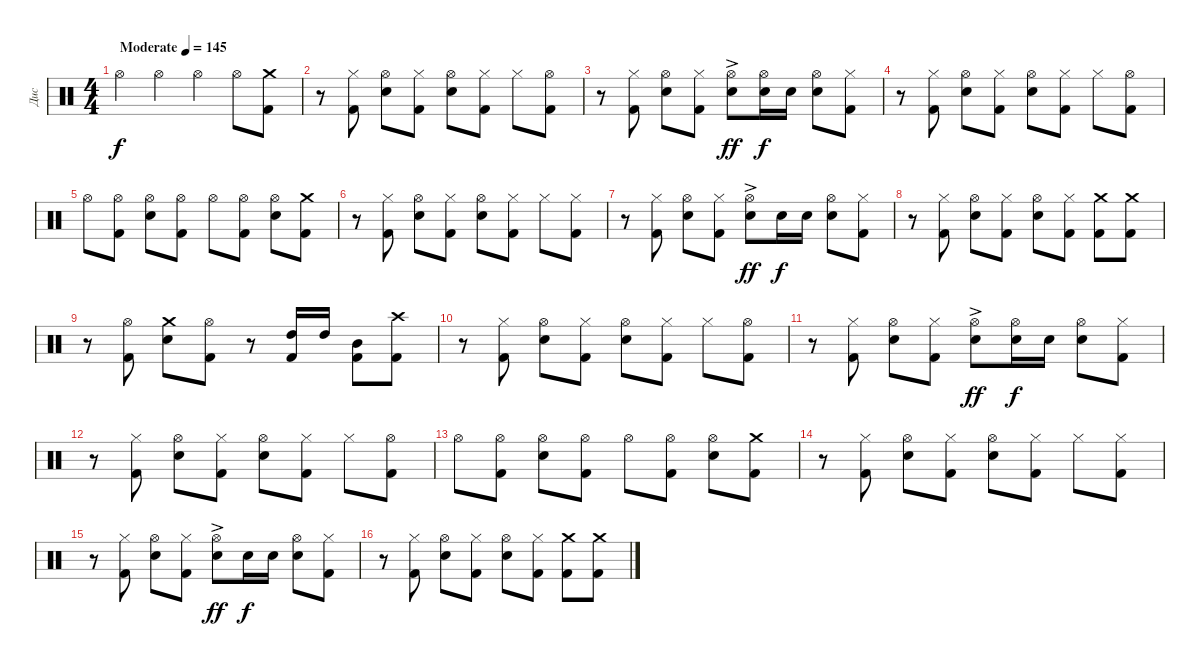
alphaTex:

\track ("Дис" "Дис") {instrument percussion}
\staff {score}
\articulation defaults
\ts (4 4)
\tempo (145 "Moderate")
\clef neutral
\ks c "Hi-Hat (open)".4{dy f} "Hi-Hat (open)".4 "Hi-Hat (open)".4 "Hi-Hat (open)".8
("Crash medium (hit)" "Kick (hit) 2").8 |
r.8 ("Hi-Hat (closed)" "Kick (hit) 2").8 ("Hi-Hat (open)" "Electric Snare (hit)").8 ("Hi-Hat (closed)" "Kick (hit) 2").8 ("Hi-Hat (open)" "Electric Snare (hit)").8 ("Hi-Hat (closed)" "Kick (hit) 2").8 "Hi-Hat (closed)".8 ("Hi-Hat (open)" "Kick (hit) 2").8 |
r.8 ("Hi-Hat (closed)" "Kick (hit) 2").8 ("Hi-Hat (open)" "Electric Snare (hit)").8 ("Hi-Hat (closed)" "Kick (hit) 2").8 ("Hi-Hat (open)" "Electric Snare (hit)"{ac}).8{dy ff} ("Hi-Hat (open)" "Electric Snare (hit)").16{dy f} "Electric Snare (hit)".16 ("Hi-Hat (open)" "Electric Snare (hit)").8 ("Hi-Hat (closed)" "Kick (hit) 2").8 |
r.8 ("Hi-Hat (closed)" "Kick (hit) 2").8 ("Hi-Hat (open)" "Electric Snare (hit)").8 ("Hi-Hat (closed)" "Kick (hit) 2").8 ("Hi-Hat (open)" "Electric Snare (hit)").8 ("Hi-Hat (closed)" "Kick (hit) 2").8 "Hi-Hat (closed)".8 ("Hi-Hat (open)" "Kick (hit) 2").8 |
"Hi-Hat (open)".8 ("Hi-Hat (open)" "Kick (hit) 2").8 ("Hi-Hat (open)" "Electric Snare (hit)").8 ("Hi-Hat (open)" "Kick (hit) 2").8 "Hi-Hat (open)".8 ("Hi-Hat (open)" "Kick (hit) 2").8 ("Hi-Hat (open)" "Electric Snare (hit)").8 ("Crash medium (hit)" "Kick (hit) 2").8 |
r.8 ("Hi-Hat (closed)" "Kick (hit) 2").8 ("Hi-Hat (open)" "Electric Snare (hit)").8 ("Hi-Hat (closed)" "Kick (hit) 2").8 ("Hi-Hat (open)" "Electric Snare (hit)").8 ("Hi-Hat (closed)" "Kick (hit) 2").8 "Hi-Hat (closed)".8 ("Hi-Hat (closed)" "Kick (hit) 2").8 |
r.8 ("Hi-Hat (closed)" "Kick (hit) 2").8 ("Hi-Hat (open)" "Electric Snare (hit)").8 ("Hi-Hat (closed)" "Kick (hit) 2").8 ("Hi-Hat (open)" "Electric Snare (hit)"{ac}).8{dy ff} "Electric Snare (hit)".16{dy f} "Electric Snare (hit)".16 ("Hi-Hat (open)" "Electric Snare (hit)").8 ("Hi-Hat (closed)" "Kick (hit) 2").8 |
r.8 ("Hi-Hat (closed)" "Kick (hit) 2").8 ("Hi-Hat (open)" "Electric Snare (hit)").8 ("Hi-Hat (closed)" "Kick (hit) 2").8 ("Hi-Hat (open)" "Electric Snare (hit)").8 ("Hi-Hat (closed)" "Kick (hit) 2").8 ("Crash medium (hit)" "Kick (hit) 2").8 ("Crash medium (hit)" "Kick (hit) 2").8 |
r.8 ("Hi-Hat (open)" "Kick (hit) 2").8 ("Crash medium (hit)" "Electric Snare (hit)").8 ("Hi-Hat (open)" "Kick (hit) 2").8 r.8 ("High Tom (hit)" "Kick (hit) 2").16 "High Tom (hit)".16 ("Mid Tom (hit)" "Kick (hit) 2").8 ("Crash high (hit)" "Kick (hit) 2").8 |
r.8 ("Hi-Hat (closed)" "Kick (hit) 2").8 ("Hi-Hat (open)" "Electric Snare (hit)").8 ("Hi-Hat (closed)" "Kick (hit) 2").8 ("Hi-Hat (open)" "Electric Snare (hit)").8 ("Hi-Hat (closed)" "Kick (hit) 2").8 "Hi-Hat (closed)".8 ("Hi-Hat (open)" "Kick (hit) 2").8 |
r.8 ("Hi-Hat (closed)" "Kick (hit) 2").8 ("Hi-Hat (open)" "Electric Snare (hit)").8 ("Hi-Hat (closed)" "Kick (hit) 2").8 ("Hi-Hat (open)" "Electric Snare (hit)"{ac}).8{dy ff} ("Hi-Hat (open)" "Electric Snare (hit)").16{dy f} "Electric Snare (hit)".16 ("Hi-Hat (open)" "Electric Snare (hit)").8 ("Hi-Hat (closed)" "Kick (hit) 2").8 |
r.8 ("Hi-Hat (closed)" "Kick (hit) 2").8 ("Hi-Hat (open)" "Electric Snare (hit)").8 ("Hi-Hat (closed)" "Kick (hit) 2").8 ("Hi-Hat (open)" "Electric Snare (hit)").8 ("Hi-Hat (closed)" "Kick (hit) 2").8 "Hi-Hat (closed)".8 ("Hi-Hat (open)" "Kick (hit) 2").8 |
"Hi-Hat (open)".8 ("Hi-Hat (open)" "Kick (hit) 2").8 ("Hi-Hat (open)" "Electric Snare (hit)").8 ("Hi-Hat (open)" "Kick (hit) 2").8 "Hi-Hat (open)".8 ("Hi-Hat (open)" "Kick (hit) 2").8 ("Hi-Hat (open)" "Electric Snare (hit)").8 ("Crash medium (hit)" "Kick (hit) 2").8 |
r.8 ("Hi-Hat (closed)" "Kick (hit) 2").8 ("Hi-Hat (open)" "Electric Snare (hit)").8 ("Hi-Hat (closed)" "Kick (hit) 2").8 ("Hi-Hat (open)" "Electric Snare (hit)").8 ("Hi-Hat (closed)" "Kick (hit) 2").8 "Hi-Hat (closed)".8 ("Hi-Hat (closed)" "Kick (hit) 2").8 |
r.8 ("Hi-Hat (closed)" "Kick (hit) 2").8 ("Hi-Hat (open)" "Electric Snare (hit)").8 ("Hi-Hat (closed)" "Kick (hit) 2").8 ("Hi-Hat (open)" "Electric Snare (hit)"{ac}).8{dy ff} "Electric Snare (hit)".16{dy f} "Electric Snare (hit)".16 ("Hi-Hat (open)" "Electric Snare (hit)").8 ("Hi-Hat (closed)" "Kick (hit) 2").8 |
r.8 ("Hi-Hat (closed)" "Kick (hit) 2").8 ("Hi-Hat (open)" "Electric Snare (hit)").8 ("Hi-Hat (closed)" "Kick (hit) 2").8 ("Hi-Hat (open)" "Electric Snare (hit)").8 ("Hi-Hat (closed)" "Kick (hit) 2").8 ("Crash medium (hit)" "Kick (hit) 2").8 ("Crash medium (hit)" "Kick (hit) 2").8
